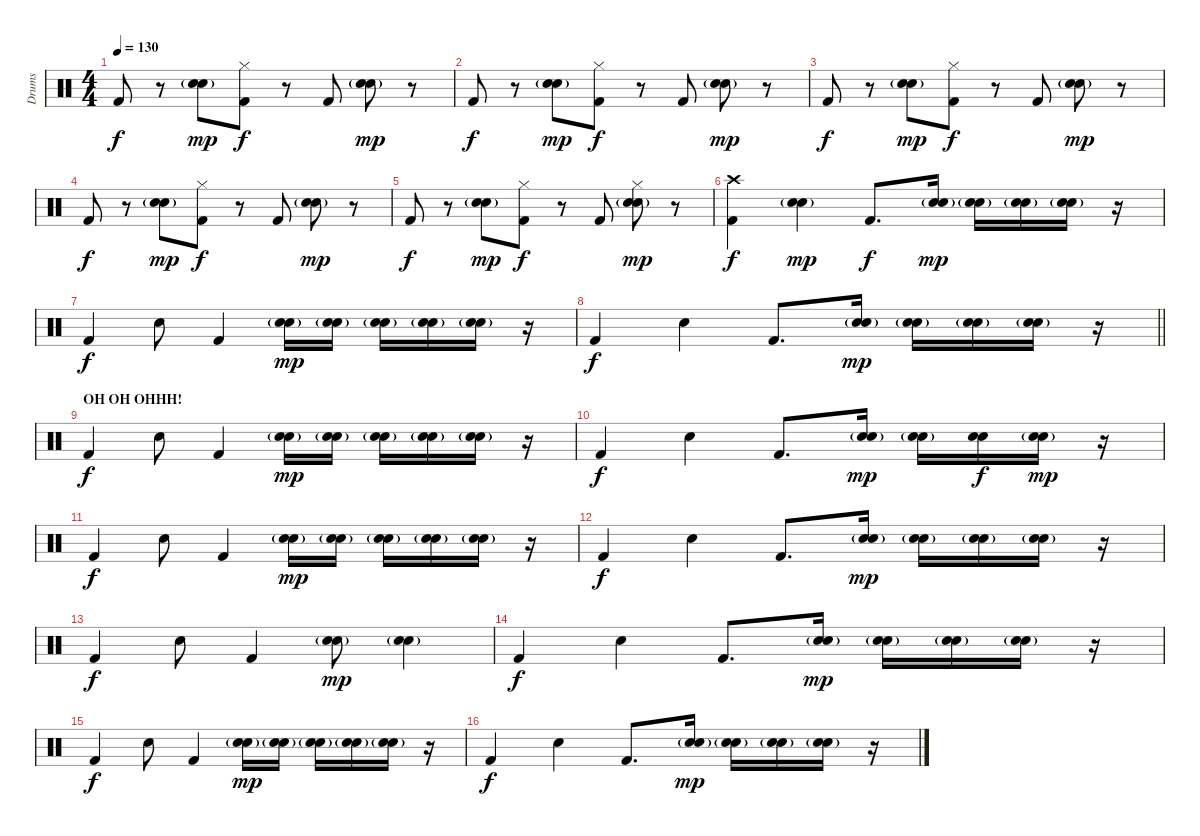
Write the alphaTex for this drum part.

\track ("Drums" "Drums") {instrument percussion}
\staff {score}
\articulation defaults
\ts (4 4)
\tempo 130
\clef neutral
\ks c "Kick (hit) 2".8{dy f}
r.8 ("Snare (hit) 2"{g} "Electric Snare (hit)").8{dy mp} ("Hi-Hat (closed)" "Kick (hit) 2").8{dy f} r.8 "Kick (hit) 2".8 ("Snare (hit) 2"{g} "Electric Snare (hit)").8{dy mp} r.8 |
"Kick (hit) 2".8{dy f} r.8 ("Snare (hit) 2"{g} "Electric Snare (hit)").8{dy mp} ("Hi-Hat (closed)" "Kick (hit) 2").8{dy f} r.8 "Kick (hit) 2".8 ("Snare (hit) 2"{g} "Electric Snare (hit)").8{dy mp} r.8 |
"Kick (hit) 2".8{dy f} r.8 ("Snare (hit) 2"{g} "Electric Snare (hit)").8{dy mp} ("Hi-Hat (closed)" "Kick (hit) 2").8{dy f} r.8 "Kick (hit) 2".8 ("Snare (hit) 2"{g} "Electric Snare (hit)").8{dy mp} r.8 |
"Kick (hit) 2".8{dy f} r.8 ("Snare (hit) 2"{g} "Electric Snare (hit)").8{dy mp} ("Hi-Hat (closed)" "Kick (hit) 2").8{dy f} r.8 "Kick (hit) 2".8 ("Snare (hit) 2"{g} "Electric Snare (hit)").8{dy mp} r.8 |
"Kick (hit) 2".8{dy f} r.8 ("Snare (hit) 2"{g} "Electric Snare (hit)").8{dy mp} ("Hi-Hat (closed)" "Kick (hit) 2").8{dy f} r.8 "Kick (hit) 2".8 ("Hi-Hat (closed)" "Snare (hit) 2"{g} "Electric Snare (hit)").8{dy mp} r.8 |
("Crash high (hit)" "Kick (hit) 2").4{dy f} ("Snare (hit) 2"{g} "Electric Snare (hit)").4{dy mp} "Kick (hit) 2".8{d dy f} ("Electric Snare (hit)" "Snare (hit) 2"{g}).16{dy mp} ("Electric Snare (hit)" "Snare (hit) 2"{g}).16 ("Electric Snare (hit)" "Snare (hit) 2"{g}).16 ("Electric Snare (hit)" "Snare (hit) 2"{g}).16 r.16 |
"Kick (hit) 2".4{dy f} "Electric Snare (hit)".8 "Kick (hit) 2".4 ("Electric Snare (hit)" "Snare (hit) 2"{g}).16{dy mp} ("Electric Snare (hit)" "Snare (hit) 2"{g}).16 ("Electric Snare (hit)" "Snare (hit) 2"{g}).16 ("Electric Snare (hit)" "Snare (hit) 2"{g}).16 ("Electric Snare (hit)" "Snare (hit) 2"{g}).16 r.16 |
\barLineRight lightlight "Kick (hit) 2".4{dy f} "Electric Snare (hit)".4 "Kick (hit) 2".8{d}
("Electric Snare (hit)" "Snare (hit) 2"{g}).16{dy mp} ("Electric Snare (hit)" "Snare (hit) 2"{g}).16 ("Electric Snare (hit)" "Snare (hit) 2"{g}).16 ("Electric Snare (hit)" "Snare (hit) 2"{g}).16 r.16 |
\section ("" "OH OH OHHH!")
"Kick (hit) 2".4{dy f} "Electric Snare (hit)".8 "Kick (hit) 2".4 ("Electric Snare (hit)" "Snare (hit) 2"{g}).16{dy mp} ("Electric Snare (hit)" "Snare (hit) 2"{g}).16 ("Electric Snare (hit)" "Snare (hit) 2"{g}).16 ("Electric Snare (hit)" "Snare (hit) 2"{g}).16 ("Electric Snare (hit)" "Snare (hit) 2"{g}).16 r.16 |
"Kick (hit) 2".4{dy f} "Electric Snare (hit)".4 "Kick (hit) 2".8{d} ("Electric Snare (hit)" "Snare (hit) 2"{g}).16{dy mp} ("Electric Snare (hit)" "Snare (hit) 2"{g}).16 ("Electric Snare (hit)" "Snare (hit) 2").16{dy f} ("Electric Snare (hit)" "Snare (hit) 2"{g}).16{dy mp} r.16 |
"Kick (hit) 2".4{dy f} "Electric Snare (hit)".8 "Kick (hit) 2".4 ("Electric Snare (hit)" "Snare (hit) 2"{g}).16{dy mp} ("Electric Snare (hit)" "Snare (hit) 2"{g}).16 ("Electric Snare (hit)" "Snare (hit) 2"{g}).16 ("Electric Snare (hit)" "Snare (hit) 2"{g}).16 ("Electric Snare (hit)" "Snare (hit) 2"{g}).16 r.16 |
"Kick (hit) 2".4{dy f} "Electric Snare (hit)".4 "Kick (hit) 2".8{d} ("Electric Snare (hit)" "Snare (hit) 2"{g}).16{dy mp} ("Electric Snare (hit)" "Snare (hit) 2"{g}).16 ("Electric Snare (hit)" "Snare (hit) 2"{g}).16 ("Electric Snare (hit)" "Snare (hit) 2"{g}).16 r.16 |
"Kick (hit) 2".4{dy f} "Electric Snare (hit)".8 "Kick (hit) 2".4 ("Electric Snare (hit)" "Snare (hit) 2"{g}).8{dy mp} ("Electric Snare (hit)" "Snare (hit) 2"{g}).4 |
"Kick (hit) 2".4{dy f} "Electric Snare (hit)".4 "Kick (hit) 2".8{d} ("Electric Snare (hit)" "Snare (hit) 2"{g}).16{dy mp} ("Electric Snare (hit)" "Snare (hit) 2"{g}).16 ("Electric Snare (hit)" "Snare (hit) 2"{g}).16 ("Electric Snare (hit)" "Snare (hit) 2"{g}).16 r.16 |
"Kick (hit) 2".4{dy f} "Electric Snare (hit)".8 "Kick (hit) 2".4 ("Electric Snare (hit)" "Snare (hit) 2"{g}).16{dy mp} ("Electric Snare (hit)" "Snare (hit) 2"{g}).16 ("Electric Snare (hit)" "Snare (hit) 2"{g}).16 ("Electric Snare (hit)" "Snare (hit) 2"{g}).16 ("Electric Snare (hit)" "Snare (hit) 2"{g}).16 r.16 |
"Kick (hit) 2".4{dy f} "Electric Snare (hit)".4 "Kick (hit) 2".8{d} ("Electric Snare (hit)" "Snare (hit) 2"{g}).16{dy mp} ("Electric Snare (hit)" "Snare (hit) 2"{g}).16 ("Electric Snare (hit)" "Snare (hit) 2"{g}).16 ("Electric Snare (hit)" "Snare (hit) 2"{g}).16 r.16
